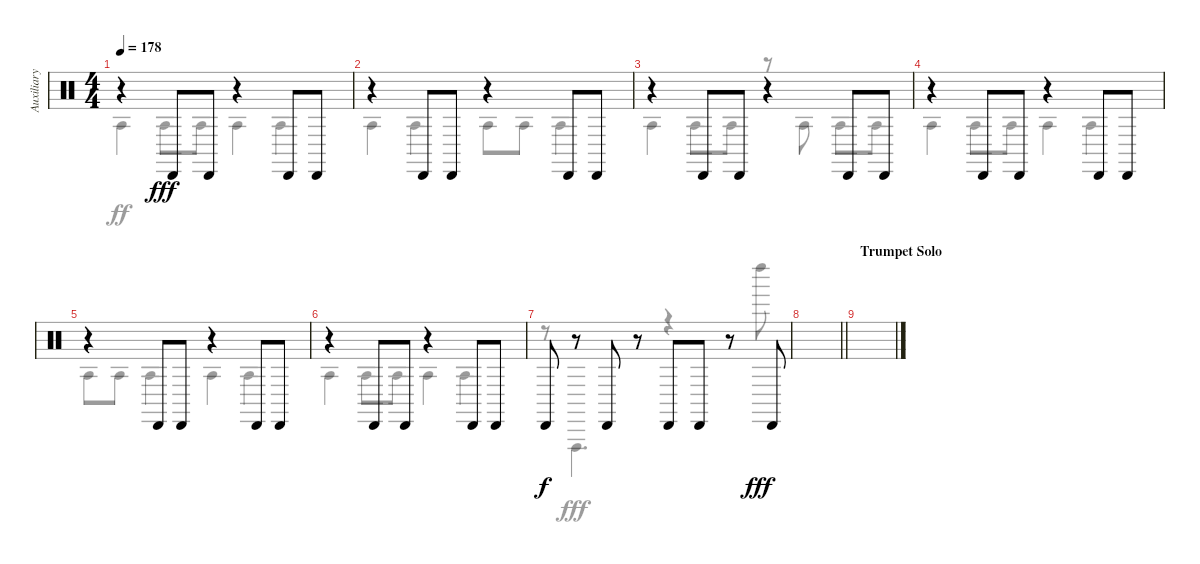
\track ("Auxiliary Percussion" "Auxiliary ") {instrument percussion}
\staff {score}
\articulation defaults
\voice
\ts (4 4)
\tempo 178
\clef neutral
\ks c
r.4{dy fff} "Cabasa (hit)".8 "Cabasa (hit)".8 r.4 "Cabasa (hit)".8 "Cabasa (hit)".8 |
r.4 "Cabasa (hit)".8 "Cabasa (hit)".8 r.4 "Cabasa (hit)".8 "Cabasa (hit)".8 |
r.4 "Cabasa (hit)".8 "Cabasa (hit)".8 r.4 "Cabasa (hit)".8 "Cabasa (hit)".8 |
r.4 "Cabasa (hit)".8 "Cabasa (hit)".8 r.4 "Cabasa (hit)".8 "Cabasa (hit)".8 |
r.4 "Cabasa (hit)".8 "Cabasa (hit)".8 r.4 "Cabasa (hit)".8 "Cabasa (hit)".8 |
r.4 "Cabasa (hit)".8 "Cabasa (hit)".8 r.4 "Cabasa (hit)".8 "Cabasa (hit)".8 |
"Cabasa (hit)".8{dy f} r.8 "Cabasa (hit)".8 r.8 "Cabasa (hit)".8 "Cabasa (hit)".8 r.8 "Cabasa (hit)".8{dy fff} |
\barLineRight lightlight
|
\section ("" "Trumpet Solo")
|
|
|
|
|
|
|
\voice
\clef neutral
\ottava regular
\simile none
\ks c "Agogo tow (hit)".4{dy ff} "Agogo tow (hit)".8 "Agogo tow (hit)".8 "Agogo tow (hit)".4 "Agogo tow (hit)".4
|
"Agogo tow (hit)".4 "Agogo tow (hit)".4 "Agogo tow (hit)".8 "Agogo tow (hit)".8 "Agogo tow (hit)".4 |
"Agogo tow (hit)".4 "Agogo tow (hit)".8 "Agogo tow (hit)".8 r.8 "Agogo tow (hit)".8 "Agogo tow (hit)".8 "Agogo tow (hit)".8 |
"Agogo tow (hit)".4 "Agogo tow (hit)".8 "Agogo tow (hit)".8 "Agogo tow (hit)".4 "Agogo tow (hit)".4 |
"Agogo tow (hit)".8 "Agogo tow (hit)".8 "Agogo tow (hit)".4 "Agogo tow (hit)".4 "Agogo tow (hit)".4 |
"Agogo tow (hit)".4 "Agogo tow (hit)".8 "Agogo tow (hit)".8 "Agogo tow (hit)".4 "Agogo tow (hit)".4 |
r.8 "Vibraslap (hit)".4{d dy fff} r.4 r.8 "Left Maraca (hit)".8 |
\barLineRight lightlight
|
|
|
|
|
|
|
|
